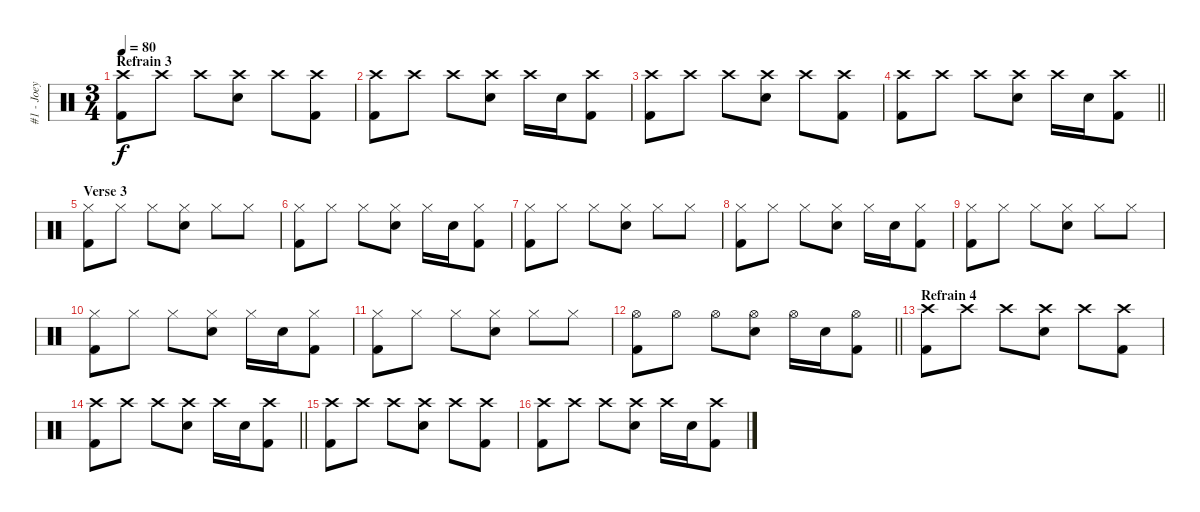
\track ("#1 - Joey Jordison" "#1 - Joey ") {instrument percussion}
\staff {score}
\articulation defaults
\ts (3 4)
\section ("" "Refrain 3")
\tempo 80
\clef neutral
\ks c
("Crash high (hit)" "Kick (hit) 2").8{dy f} "Crash high (hit)".8 "Crash high (hit)".8 ("Crash high (hit)" "Snare (hit) 2").8 "Crash high (hit)".8 ("Crash high (hit)" "Kick (hit) 2").8 |
("Crash high (hit)" "Kick (hit) 2").8 "Crash high (hit)".8 "Crash high (hit)".8 ("Crash high (hit)" "Snare (hit) 2").8 "Crash high (hit)".16 "Snare (hit) 2".16 ("Crash high (hit)" "Kick (hit) 2").8 |
("Crash high (hit)" "Kick (hit) 2").8 "Crash high (hit)".8 "Crash high (hit)".8 ("Crash high (hit)" "Snare (hit) 2").8 "Crash high (hit)".8 ("Crash high (hit)" "Kick (hit) 2").8 |
\barLineRight lightlight
("Crash high (hit)" "Kick (hit) 2").8 "Crash high (hit)".8 "Crash high (hit)".8 ("Crash high (hit)" "Snare (hit) 2").8 "Crash high (hit)".16 "Snare (hit) 2".16 ("Crash high (hit)" "Kick (hit) 2").8 |
\section ("" "Verse 3")
("Hi-Hat (closed)" "Kick (hit) 2").8 "Hi-Hat (closed)".8 "Hi-Hat (closed)".8 ("Hi-Hat (closed)" "Snare (hit) 2").8 "Hi-Hat (closed)".8 "Hi-Hat (closed)".8 |
("Hi-Hat (closed)" "Kick (hit) 2").8 "Hi-Hat (closed)".8 "Hi-Hat (closed)".8 ("Hi-Hat (closed)" "Snare (hit) 2").8 "Hi-Hat (closed)".16 "Snare (hit) 2".16 ("Hi-Hat (closed)" "Kick (hit) 2").8 |
("Hi-Hat (closed)" "Kick (hit) 2").8 "Hi-Hat (closed)".8 "Hi-Hat (closed)".8 ("Hi-Hat (closed)" "Snare (hit) 2").8 "Hi-Hat (closed)".8 "Hi-Hat (closed)".8 |
("Hi-Hat (closed)" "Kick (hit) 2").8 "Hi-Hat (closed)".8 "Hi-Hat (closed)".8 ("Hi-Hat (closed)" "Snare (hit) 2").8 "Hi-Hat (closed)".16 "Snare (hit) 2".16 ("Hi-Hat (closed)" "Kick (hit) 2").8 |
("Hi-Hat (closed)" "Kick (hit) 2").8 "Hi-Hat (closed)".8 "Hi-Hat (closed)".8 ("Hi-Hat (closed)" "Snare (hit) 2").8 "Hi-Hat (closed)".8 "Hi-Hat (closed)".8 |
("Hi-Hat (closed)" "Kick (hit) 2").8 "Hi-Hat (closed)".8 "Hi-Hat (closed)".8 ("Hi-Hat (closed)" "Snare (hit) 2").8 "Hi-Hat (closed)".16 "Snare (hit) 2".16 ("Hi-Hat (closed)" "Kick (hit) 2").8 |
("Hi-Hat (closed)" "Kick (hit) 2").8 "Hi-Hat (closed)".8 "Hi-Hat (closed)".8 ("Hi-Hat (closed)" "Snare (hit) 2").8 "Hi-Hat (closed)".8 "Hi-Hat (closed)".8 |
\barLineRight lightlight
("Hi-Hat (open)" "Kick (hit) 2").8 "Hi-Hat (open)".8 "Hi-Hat (open)".8 ("Hi-Hat (open)" "Snare (hit) 2").8 "Hi-Hat (open)".16 "Snare (hit) 2".16 ("Hi-Hat (open)" "Kick (hit) 2").8 |
\section ("" "Refrain 4")
("Crash high (hit)" "Kick (hit) 2").8 "Crash high (hit)".8 "Crash high (hit)".8 ("Crash high (hit)" "Snare (hit) 2").8 "Crash high (hit)".8 ("Crash high (hit)" "Kick (hit) 2").8 |
\barLineRight lightlight
("Crash high (hit)" "Kick (hit) 2").8 "Crash high (hit)".8 "Crash high (hit)".8 ("Crash high (hit)" "Snare (hit) 2").8 "Crash high (hit)".16 "Snare (hit) 2".16 ("Crash high (hit)" "Kick (hit) 2").8 |
("Crash high (hit)" "Kick (hit) 2").8 "Crash high (hit)".8 "Crash high (hit)".8 ("Crash high (hit)" "Snare (hit) 2").8 "Crash high (hit)".8 ("Crash high (hit)" "Kick (hit) 2").8 |
("Crash high (hit)" "Kick (hit) 2").8 "Crash high (hit)".8 "Crash high (hit)".8 ("Crash high (hit)" "Snare (hit) 2").8 "Crash high (hit)".16 "Snare (hit) 2".16 ("Crash high (hit)" "Kick (hit) 2").8
